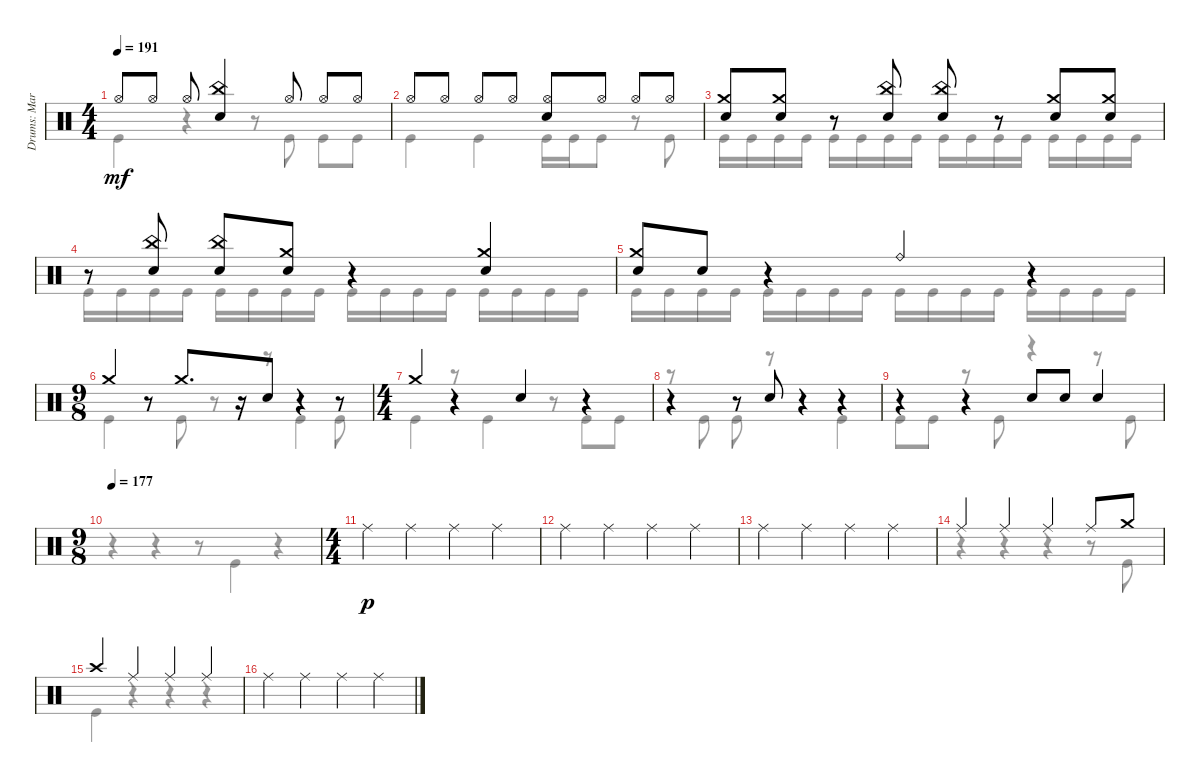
\track ("Drums: Mario Duplantier" "Drums: Mar") {instrument percussion}
\staff {score}
\articulation defaults
\voice
\ts (4 4)
\tempo 191
\clef neutral
\ks c "Hi-Hat (open)".8{dy mf} "Hi-Hat (open)".8 "Hi-Hat (open)".8
("Snare (hit) 2" "China (hit)").4 "Hi-Hat (open)".8 "Hi-Hat (open)".8 "Hi-Hat (open)".8 |
"Hi-Hat (open)".8 "Hi-Hat (open)".8 "Hi-Hat (open)".8 "Hi-Hat (open)".8 ("Snare (hit) 2" "Hi-Hat (open)").8 "Hi-Hat (open)".8 "Hi-Hat (open)".8 "Hi-Hat (open)".8 |
("Snare (hit) 2" "Crash medium (hit)").8 ("Snare (hit) 2" "Crash medium (hit)").8 r.8 ("Snare (hit) 2" "China (hit)").8 ("Snare (hit) 2" "China (hit)").8 r.8 ("Snare (hit) 2" "Crash medium (hit)").8 ("Snare (hit) 2" "Crash medium (hit)").8 |
r.8 ("Snare (hit) 2" "China (hit)").8 ("Snare (hit) 2" "China (hit)").8 ("Snare (hit) 2" "Crash medium (hit)").8 r.4 ("Snare (hit) 2" "Crash medium (hit)").4 |
("Snare (hit) 2" "Crash medium (hit)").8 "Snare (hit) 2".8 r.4 "Ride (bell)".4 r.4 |
\ts (9 8)
"Crash medium (hit)".4 r.8 "Crash medium (hit)".8{d} r.16 "Snare (hit) 2".8 r.4 r.8 |
\ts (4 4)
"Crash medium (hit)".4 r.4 "Snare (hit) 2".4 r.4 |
r.4 r.8 "Snare (hit) 2".8 r.4 r.4 |
r.4 r.4 "Snare (hit) 2".8 "Snare (hit) 2".8 "Snare (hit) 2".4 |
\ts (9 8)
\tempo 177
|
\ts (4 4)
"Ride (middle)".4{dy p} "Ride (middle)".4 "Ride (middle)".4 "Ride (middle)".4 |
"Ride (middle)".4 "Ride (middle)".4 "Ride (middle)".4 "Ride (middle)".4 |
"Ride (middle)".4 "Ride (middle)".4 "Ride (middle)".4 "Ride (middle)".4 |
"Ride (middle)".4 "Ride (middle)".4 "Ride (middle)".4 "Ride (middle)".8 "Crash medium (hit)".8 |
"Crash high (hit)".4 "Ride (middle)".4 "Ride (middle)".4 "Ride (middle)".4 |
"Ride (middle)".4 "Ride (middle)".4 "Ride (middle)".4 "Ride (middle)".4
\voice
\clef neutral
\ottava regular
\simile none
\ks c "Kick (hit)".4{dy mf}
r.4 r.8 "Kick (hit)".8 "Kick (hit)".8 "Kick (hit)".8 |
"Kick (hit)".4 "Kick (hit)".4 "Kick (hit)".16 "Kick (hit)".16 "Kick (hit)".8 r.8 "Kick (hit)".8 |
"Kick (hit)".16 "Kick (hit)".16 "Kick (hit)".16 "Kick (hit)".16 "Kick (hit)".16 "Kick (hit)".16 "Kick (hit)".16 "Kick (hit)".16 "Kick (hit)".16 "Kick (hit)".16 "Kick (hit)".16 "Kick (hit)".16 "Kick (hit)".16 "Kick (hit)".16 "Kick (hit)".16 "Kick (hit)".16 |
"Kick (hit)".16 "Kick (hit)".16 "Kick (hit)".16 "Kick (hit)".16 "Kick (hit)".16 "Kick (hit)".16 "Kick (hit)".16 "Kick (hit)".16 "Kick (hit)".16 "Kick (hit)".16 "Kick (hit)".16 "Kick (hit)".16 "Kick (hit)".16 "Kick (hit)".16 "Kick (hit)".16 "Kick (hit)".16 |
"Kick (hit)".16 "Kick (hit)".16 "Kick (hit)".16 "Kick (hit)".16 "Kick (hit)".16 "Kick (hit)".16 "Kick (hit)".16 "Kick (hit)".16 "Kick (hit)".16 "Kick (hit)".16 "Kick (hit)".16 "Kick (hit)".16 "Kick (hit)".16 "Kick (hit)".16 "Kick (hit)".16 "Kick (hit)".16 |
"Kick (hit)".4 r.8 "Kick (hit)".8 r.8 r.8 "Kick (hit)".4 "Kick (hit)".8 |
"Kick (hit)".4 r.8 "Kick (hit)".4 r.8 "Kick (hit)".8 "Kick (hit)".8 |
r.8 "Kick (hit)".8 "Kick (hit)".8 r.8 r.4 "Kick (hit)".4 |
"Kick (hit)".8 "Kick (hit)".8 r.8 "Kick (hit)".8 r.4 r.8 "Kick (hit)".8 |
r.4 r.4 r.8 "Kick (hit)".4 r.4 |
|
|
|
r.4 r.4 r.4 r.8 "Kick (hit)".8 |
"Kick (hit)".4 r.4 r.4 r.4 |
